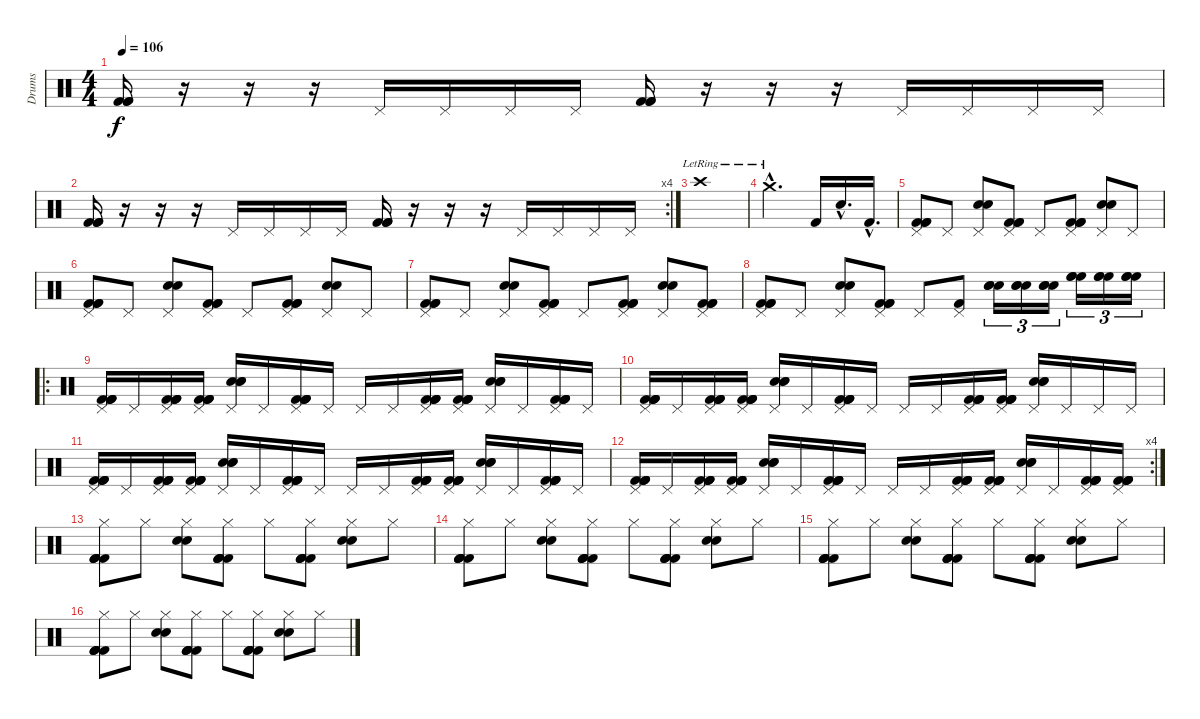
\track ("Drums" "Drums") {instrument percussion}
\staff {score}
\articulation defaults
\ts (4 4)
\tempo 106
\clef neutral
\ks c
("Kick (hit) 2" "Kick (hit) 2" "Kick (hit) 2").16{dy f} r.16 r.16 r.16 "Pedal Hi-Hat (hit)".16 "Pedal Hi-Hat (hit)".16 "Pedal Hi-Hat (hit)".16 "Pedal Hi-Hat (hit)".16 ("Kick (hit) 2" "Kick (hit) 2" "Kick (hit) 2").16 r.16 r.16 r.16 "Pedal Hi-Hat (hit)".16 "Pedal Hi-Hat (hit)".16 "Pedal Hi-Hat (hit)".16 "Pedal Hi-Hat (hit)".16 |
\rc 4
("Kick (hit) 2" "Kick (hit) 2" "Kick (hit) 2").16 r.16 r.16 r.16 "Pedal Hi-Hat (hit)".16 "Pedal Hi-Hat (hit)".16 "Pedal Hi-Hat (hit)".16 "Pedal Hi-Hat (hit)".16 ("Kick (hit) 2" "Kick (hit) 2" "Kick (hit) 2").16 r.16 r.16 r.16 "Pedal Hi-Hat (hit)".16 "Pedal Hi-Hat (hit)".16 "Pedal Hi-Hat (hit)".16 "Pedal Hi-Hat (hit)".16 |
"Crash high (hit)"{lr}.1 |
"Crash medium (hit)"{hac lr}.2{d} "Kick (hit) 2".16 "Electric Snare (hit)"{hac}.16{d} "Kick (hit) 2"{hac}.16{d} |
("Pedal Hi-Hat (hit)" "Kick (hit) 2" "Kick (hit) 2" "Kick (hit) 2").8 "Pedal Hi-Hat (hit)".8 ("Pedal Hi-Hat (hit)" "Electric Snare (hit)" "Electric Snare (hit)").8 ("Pedal Hi-Hat (hit)" "Kick (hit) 2" "Kick (hit) 2" "Kick (hit) 2").8 "Pedal Hi-Hat (hit)".8 ("Pedal Hi-Hat (hit)" "Kick (hit) 2" "Kick (hit) 2" "Kick (hit) 2").8 ("Pedal Hi-Hat (hit)" "Electric Snare (hit)" "Electric Snare (hit)").8 "Pedal Hi-Hat (hit)".8 |
("Pedal Hi-Hat (hit)" "Kick (hit) 2" "Kick (hit) 2" "Kick (hit) 2").8 "Pedal Hi-Hat (hit)".8 ("Pedal Hi-Hat (hit)" "Electric Snare (hit)" "Electric Snare (hit)").8 ("Pedal Hi-Hat (hit)" "Kick (hit) 2" "Kick (hit) 2" "Kick (hit) 2").8 "Pedal Hi-Hat (hit)".8 ("Pedal Hi-Hat (hit)" "Kick (hit) 2" "Kick (hit) 2" "Kick (hit) 2").8 ("Pedal Hi-Hat (hit)" "Electric Snare (hit)" "Electric Snare (hit)").8 "Pedal Hi-Hat (hit)".8 |
("Pedal Hi-Hat (hit)" "Kick (hit) 2" "Kick (hit) 2" "Kick (hit) 2").8 "Pedal Hi-Hat (hit)".8 ("Pedal Hi-Hat (hit)" "Electric Snare (hit)" "Electric Snare (hit)").8 ("Pedal Hi-Hat (hit)" "Kick (hit) 2" "Kick (hit) 2" "Kick (hit) 2").8 "Pedal Hi-Hat (hit)".8 ("Pedal Hi-Hat (hit)" "Kick (hit) 2" "Kick (hit) 2" "Kick (hit) 2").8 ("Pedal Hi-Hat (hit)" "Electric Snare (hit)" "Electric Snare (hit)").8 ("Pedal Hi-Hat (hit)" "Kick (hit) 2" "Kick (hit) 2" "Kick (hit) 2").8 |
("Pedal Hi-Hat (hit)" "Kick (hit) 2" "Kick (hit) 2" "Kick (hit) 2").8 "Pedal Hi-Hat (hit)".8 ("Pedal Hi-Hat (hit)" "Electric Snare (hit)" "Electric Snare (hit)").8 ("Pedal Hi-Hat (hit)" "Kick (hit) 2" "Kick (hit) 2" "Kick (hit) 2").8 "Pedal Hi-Hat (hit)".8 ("Pedal Hi-Hat (hit)" "Kick (hit) 2").8 ("Electric Snare (hit)" "Electric Snare (hit)" "Electric Snare (hit)").16{tu (3 2)} ("Electric Snare (hit)" "Electric Snare (hit)" "Electric Snare (hit)").16{tu (3 2)} ("Electric Snare (hit)" "Electric Snare (hit)" "Electric Snare (hit)").16{tu (3 2)} ("High Floor Tom (hit)" "High Floor Tom (hit)" "High Floor Tom (hit)").16{tu (3 2)} ("High Floor Tom (hit)" "High Floor Tom (hit)" "High Floor Tom (hit)").16{tu (3 2)} ("High Floor Tom (hit)" "High Floor Tom (hit)" "High Floor Tom (hit)").16{tu (3 2)} |
\ro
("Pedal Hi-Hat (hit)" "Kick (hit) 2" "Kick (hit) 2" "Kick (hit) 2" "Kick (hit) 2").16 "Pedal Hi-Hat (hit)".16 ("Pedal Hi-Hat (hit)" "Kick (hit) 2" "Kick (hit) 2" "Kick (hit) 2" "Kick (hit) 2").16 ("Pedal Hi-Hat (hit)" "Kick (hit) 2" "Kick (hit) 2" "Kick (hit) 2" "Kick (hit) 2").16 ("Pedal Hi-Hat (hit)" "Electric Snare (hit)" "Electric Snare (hit)" "Electric Snare (hit)").16 "Pedal Hi-Hat (hit)".16 ("Pedal Hi-Hat (hit)" "Kick (hit) 2" "Kick (hit) 2" "Kick (hit) 2" "Kick (hit) 2").16 "Pedal Hi-Hat (hit)".16 "Pedal Hi-Hat (hit)".16 "Pedal Hi-Hat (hit)".16 ("Pedal Hi-Hat (hit)" "Kick (hit) 2" "Kick (hit) 2" "Kick (hit) 2" "Kick (hit) 2").16 ("Pedal Hi-Hat (hit)" "Kick (hit) 2" "Kick (hit) 2" "Kick (hit) 2" "Kick (hit) 2").16 ("Pedal Hi-Hat (hit)" "Electric Snare (hit)" "Electric Snare (hit)" "Electric Snare (hit)").16 "Pedal Hi-Hat (hit)".16 ("Pedal Hi-Hat (hit)" "Kick (hit) 2" "Kick (hit) 2" "Kick (hit) 2" "Kick (hit) 2").16 "Pedal Hi-Hat (hit)".16 |
("Pedal Hi-Hat (hit)" "Kick (hit) 2" "Kick (hit) 2" "Kick (hit) 2" "Kick (hit) 2").16 "Pedal Hi-Hat (hit)".16 ("Pedal Hi-Hat (hit)" "Kick (hit) 2" "Kick (hit) 2" "Kick (hit) 2" "Kick (hit) 2").16 ("Pedal Hi-Hat (hit)" "Kick (hit) 2" "Kick (hit) 2" "Kick (hit) 2" "Kick (hit) 2").16 ("Pedal Hi-Hat (hit)" "Electric Snare (hit)" "Electric Snare (hit)" "Electric Snare (hit)").16 "Pedal Hi-Hat (hit)".16 ("Pedal Hi-Hat (hit)" "Kick (hit) 2" "Kick (hit) 2" "Kick (hit) 2" "Kick (hit) 2").16 "Pedal Hi-Hat (hit)".16 "Pedal Hi-Hat (hit)".16 "Pedal Hi-Hat (hit)".16 ("Pedal Hi-Hat (hit)" "Kick (hit) 2" "Kick (hit) 2" "Kick (hit) 2" "Kick (hit) 2").16 ("Pedal Hi-Hat (hit)" "Kick (hit) 2" "Kick (hit) 2" "Kick (hit) 2" "Kick (hit) 2").16 ("Pedal Hi-Hat (hit)" "Electric Snare (hit)" "Electric Snare (hit)" "Electric Snare (hit)").16 "Pedal Hi-Hat (hit)".16 "Pedal Hi-Hat (hit)".16 "Pedal Hi-Hat (hit)".16 |
("Pedal Hi-Hat (hit)" "Kick (hit) 2" "Kick (hit) 2" "Kick (hit) 2" "Kick (hit) 2").16 "Pedal Hi-Hat (hit)".16 ("Pedal Hi-Hat (hit)" "Kick (hit) 2" "Kick (hit) 2" "Kick (hit) 2" "Kick (hit) 2").16 ("Pedal Hi-Hat (hit)" "Kick (hit) 2" "Kick (hit) 2" "Kick (hit) 2" "Kick (hit) 2").16 ("Pedal Hi-Hat (hit)" "Electric Snare (hit)" "Electric Snare (hit)" "Electric Snare (hit)").16 "Pedal Hi-Hat (hit)".16 ("Pedal Hi-Hat (hit)" "Kick (hit) 2" "Kick (hit) 2" "Kick (hit) 2" "Kick (hit) 2").16 "Pedal Hi-Hat (hit)".16 "Pedal Hi-Hat (hit)".16 "Pedal Hi-Hat (hit)".16 ("Pedal Hi-Hat (hit)" "Kick (hit) 2" "Kick (hit) 2" "Kick (hit) 2" "Kick (hit) 2").16 ("Pedal Hi-Hat (hit)" "Kick (hit) 2" "Kick (hit) 2" "Kick (hit) 2" "Kick (hit) 2").16 ("Pedal Hi-Hat (hit)" "Electric Snare (hit)" "Electric Snare (hit)" "Electric Snare (hit)").16 "Pedal Hi-Hat (hit)".16 ("Pedal Hi-Hat (hit)" "Kick (hit) 2" "Kick (hit) 2" "Kick (hit) 2" "Kick (hit) 2").16 "Pedal Hi-Hat (hit)".16 |
\rc 4
("Pedal Hi-Hat (hit)" "Kick (hit) 2" "Kick (hit) 2" "Kick (hit) 2" "Kick (hit) 2").16 "Pedal Hi-Hat (hit)".16 ("Pedal Hi-Hat (hit)" "Kick (hit) 2" "Kick (hit) 2" "Kick (hit) 2" "Kick (hit) 2").16 ("Pedal Hi-Hat (hit)" "Kick (hit) 2" "Kick (hit) 2" "Kick (hit) 2" "Kick (hit) 2").16 ("Pedal Hi-Hat (hit)" "Electric Snare (hit)" "Electric Snare (hit)" "Electric Snare (hit)").16 "Pedal Hi-Hat (hit)".16 ("Pedal Hi-Hat (hit)" "Kick (hit) 2" "Kick (hit) 2" "Kick (hit) 2" "Kick (hit) 2").16 "Pedal Hi-Hat (hit)".16 "Pedal Hi-Hat (hit)".16 "Pedal Hi-Hat (hit)".16 ("Pedal Hi-Hat (hit)" "Kick (hit) 2" "Kick (hit) 2" "Kick (hit) 2" "Kick (hit) 2").16 ("Pedal Hi-Hat (hit)" "Kick (hit) 2" "Kick (hit) 2" "Kick (hit) 2" "Kick (hit) 2").16 ("Pedal Hi-Hat (hit)" "Electric Snare (hit)" "Electric Snare (hit)" "Electric Snare (hit)").16 "Pedal Hi-Hat (hit)".16 ("Pedal Hi-Hat (hit)" "Kick (hit) 2" "Kick (hit) 2" "Kick (hit) 2" "Kick (hit) 2").16 ("Pedal Hi-Hat (hit)" "Kick (hit) 2" "Kick (hit) 2" "Kick (hit) 2" "Kick (hit) 2").16 |
("Hi-Hat (closed)" "Kick (hit) 2" "Kick (hit) 2" "Kick (hit) 2" "Kick (hit) 2").8 "Hi-Hat (closed)".8 ("Hi-Hat (closed)" "Electric Snare (hit)" "Electric Snare (hit)").8 ("Hi-Hat (closed)" "Kick (hit) 2" "Kick (hit) 2" "Kick (hit) 2" "Kick (hit) 2").8 "Hi-Hat (closed)".8 ("Hi-Hat (closed)" "Kick (hit) 2" "Kick (hit) 2" "Kick (hit) 2" "Kick (hit) 2").8 ("Hi-Hat (closed)" "Electric Snare (hit)" "Electric Snare (hit)").8 "Hi-Hat (closed)".8 |
("Hi-Hat (closed)" "Kick (hit) 2" "Kick (hit) 2" "Kick (hit) 2" "Kick (hit) 2").8 "Hi-Hat (closed)".8 ("Hi-Hat (closed)" "Electric Snare (hit)" "Electric Snare (hit)").8 ("Hi-Hat (closed)" "Kick (hit) 2" "Kick (hit) 2" "Kick (hit) 2" "Kick (hit) 2").8 "Hi-Hat (closed)".8 ("Hi-Hat (closed)" "Kick (hit) 2" "Kick (hit) 2" "Kick (hit) 2" "Kick (hit) 2").8 ("Hi-Hat (closed)" "Electric Snare (hit)" "Electric Snare (hit)").8 "Hi-Hat (closed)".8 |
("Hi-Hat (closed)" "Kick (hit) 2" "Kick (hit) 2" "Kick (hit) 2" "Kick (hit) 2").8 "Hi-Hat (closed)".8 ("Hi-Hat (closed)" "Electric Snare (hit)" "Electric Snare (hit)").8 ("Hi-Hat (closed)" "Kick (hit) 2" "Kick (hit) 2" "Kick (hit) 2" "Kick (hit) 2").8 "Hi-Hat (closed)".8 ("Hi-Hat (closed)" "Kick (hit) 2" "Kick (hit) 2" "Kick (hit) 2" "Kick (hit) 2").8 ("Hi-Hat (closed)" "Electric Snare (hit)" "Electric Snare (hit)").8 "Hi-Hat (closed)".8 |
("Hi-Hat (closed)" "Kick (hit) 2" "Kick (hit) 2" "Kick (hit) 2" "Kick (hit) 2").8 "Hi-Hat (closed)".8 ("Hi-Hat (closed)" "Electric Snare (hit)" "Electric Snare (hit)").8 ("Hi-Hat (closed)" "Kick (hit) 2" "Kick (hit) 2" "Kick (hit) 2" "Kick (hit) 2").8 "Hi-Hat (closed)".8 ("Hi-Hat (closed)" "Kick (hit) 2" "Kick (hit) 2" "Kick (hit) 2" "Kick (hit) 2").8 ("Hi-Hat (closed)" "Electric Snare (hit)" "Electric Snare (hit)").8 "Hi-Hat (closed)".8
